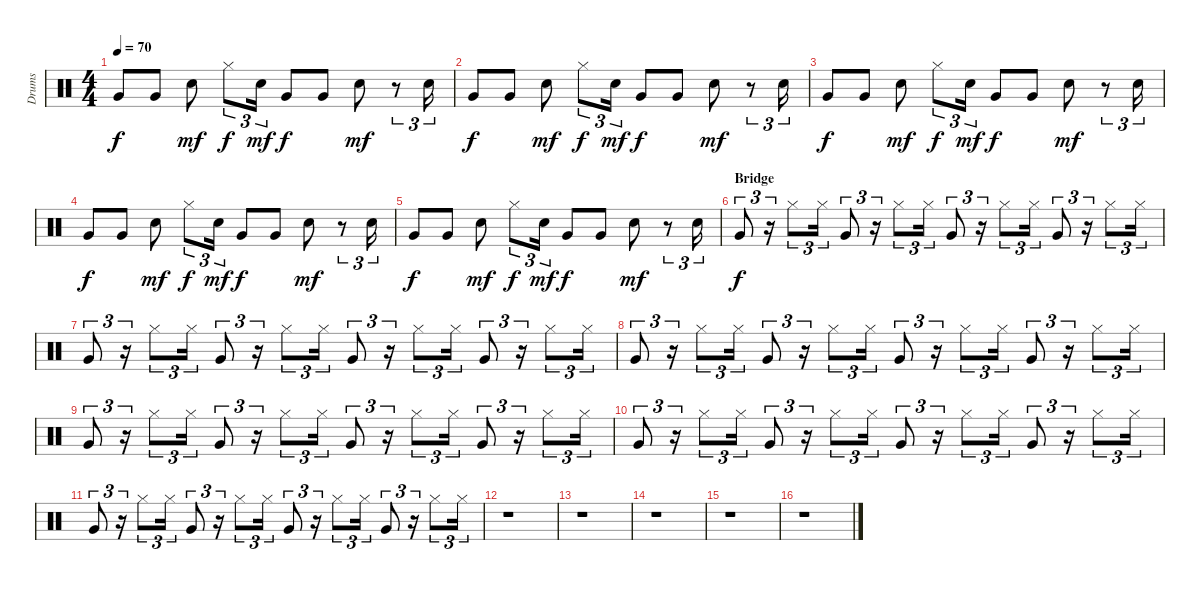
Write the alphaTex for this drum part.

\track ("Drums" "Drums") {instrument percussion}
\staff {score}
\articulation defaults
\ts (4 4)
\tempo 70
\clef neutral
\ks c "Very Low Tom (hit)".8{dy f} "Very Low Tom (hit)".8 "Electric Snare (hit)".8{dy mf} "Hi-Hat (closed)".8{tu (3 2) dy f} "Electric Snare (hit)".16{tu (3 2) dy mf} "Very Low Tom (hit)".8{dy f} "Very Low Tom (hit)".8 "Electric Snare (hit)".8{dy mf}
r.8{tu (3 2)} "Electric Snare (hit)".16{tu (3 2)} |
"Very Low Tom (hit)".8{dy f} "Very Low Tom (hit)".8 "Electric Snare (hit)".8{dy mf} "Hi-Hat (closed)".8{tu (3 2) dy f} "Electric Snare (hit)".16{tu (3 2) dy mf} "Very Low Tom (hit)".8{dy f} "Very Low Tom (hit)".8 "Electric Snare (hit)".8{dy mf} r.8{tu (3 2)} "Electric Snare (hit)".16{tu (3 2)} |
"Very Low Tom (hit)".8{dy f} "Very Low Tom (hit)".8 "Electric Snare (hit)".8{dy mf} "Hi-Hat (closed)".8{tu (3 2) dy f} "Electric Snare (hit)".16{tu (3 2) dy mf} "Very Low Tom (hit)".8{dy f} "Very Low Tom (hit)".8 "Electric Snare (hit)".8{dy mf} r.8{tu (3 2)} "Electric Snare (hit)".16{tu (3 2)} |
"Very Low Tom (hit)".8{dy f} "Very Low Tom (hit)".8 "Electric Snare (hit)".8{dy mf} "Hi-Hat (closed)".8{tu (3 2) dy f} "Electric Snare (hit)".16{tu (3 2) dy mf} "Very Low Tom (hit)".8{dy f} "Very Low Tom (hit)".8 "Electric Snare (hit)".8{dy mf} r.8{tu (3 2)} "Electric Snare (hit)".16{tu (3 2)} |
"Very Low Tom (hit)".8{dy f} "Very Low Tom (hit)".8 "Electric Snare (hit)".8{dy mf} "Hi-Hat (closed)".8{tu (3 2) dy f} "Electric Snare (hit)".16{tu (3 2) dy mf} "Very Low Tom (hit)".8{dy f} "Very Low Tom (hit)".8 "Electric Snare (hit)".8{dy mf} r.8{tu (3 2)} "Electric Snare (hit)".16{tu (3 2)} |
\section ("" "Bridge")
"Very Low Tom (hit)".8{tu (3 2) dy f volume 9} r.16{tu (3 2)} "Hi-Hat (closed)".8{tu (3 2)} "Hi-Hat (closed)".16{tu (3 2)} "Very Low Tom (hit)".8{tu (3 2)} r.16{tu (3 2)} "Hi-Hat (closed)".8{tu (3 2)} "Hi-Hat (closed)".16{tu (3 2)} "Very Low Tom (hit)".8{tu (3 2)} r.16{tu (3 2)} "Hi-Hat (closed)".8{tu (3 2)} "Hi-Hat (closed)".16{tu (3 2)} "Very Low Tom (hit)".8{tu (3 2)} r.16{tu (3 2)} "Hi-Hat (closed)".8{tu (3 2)} "Hi-Hat (closed)".16{tu (3 2)} |
"Very Low Tom (hit)".8{tu (3 2)} r.16{tu (3 2)} "Hi-Hat (closed)".8{tu (3 2)} "Hi-Hat (closed)".16{tu (3 2)} "Very Low Tom (hit)".8{tu (3 2)} r.16{tu (3 2)} "Hi-Hat (closed)".8{tu (3 2)} "Hi-Hat (closed)".16{tu (3 2)} "Very Low Tom (hit)".8{tu (3 2)} r.16{tu (3 2)} "Hi-Hat (closed)".8{tu (3 2)} "Hi-Hat (closed)".16{tu (3 2)} "Very Low Tom (hit)".8{tu (3 2)} r.16{tu (3 2)} "Hi-Hat (closed)".8{tu (3 2)} "Hi-Hat (closed)".16{tu (3 2)} |
"Very Low Tom (hit)".8{tu (3 2)} r.16{tu (3 2)} "Hi-Hat (closed)".8{tu (3 2)} "Hi-Hat (closed)".16{tu (3 2)} "Very Low Tom (hit)".8{tu (3 2)} r.16{tu (3 2)} "Hi-Hat (closed)".8{tu (3 2)} "Hi-Hat (closed)".16{tu (3 2)} "Very Low Tom (hit)".8{tu (3 2)} r.16{tu (3 2)} "Hi-Hat (closed)".8{tu (3 2)} "Hi-Hat (closed)".16{tu (3 2)} "Very Low Tom (hit)".8{tu (3 2)} r.16{tu (3 2)} "Hi-Hat (closed)".8{tu (3 2)} "Hi-Hat (closed)".16{tu (3 2)} |
"Very Low Tom (hit)".8{tu (3 2)} r.16{tu (3 2)} "Hi-Hat (closed)".8{tu (3 2)} "Hi-Hat (closed)".16{tu (3 2)} "Very Low Tom (hit)".8{tu (3 2)} r.16{tu (3 2)} "Hi-Hat (closed)".8{tu (3 2)} "Hi-Hat (closed)".16{tu (3 2)} "Very Low Tom (hit)".8{tu (3 2)} r.16{tu (3 2)} "Hi-Hat (closed)".8{tu (3 2)} "Hi-Hat (closed)".16{tu (3 2)} "Very Low Tom (hit)".8{tu (3 2)} r.16{tu (3 2)} "Hi-Hat (closed)".8{tu (3 2)} "Hi-Hat (closed)".16{tu (3 2)} |
"Very Low Tom (hit)".8{tu (3 2)} r.16{tu (3 2)} "Hi-Hat (closed)".8{tu (3 2)} "Hi-Hat (closed)".16{tu (3 2)} "Very Low Tom (hit)".8{tu (3 2)} r.16{tu (3 2)} "Hi-Hat (closed)".8{tu (3 2)} "Hi-Hat (closed)".16{tu (3 2)} "Very Low Tom (hit)".8{tu (3 2)} r.16{tu (3 2)} "Hi-Hat (closed)".8{tu (3 2)} "Hi-Hat (closed)".16{tu (3 2)} "Very Low Tom (hit)".8{tu (3 2)} r.16{tu (3 2)} "Hi-Hat (closed)".8{tu (3 2)} "Hi-Hat (closed)".16{tu (3 2)} |
"Very Low Tom (hit)".8{tu (3 2)} r.16{tu (3 2)} "Hi-Hat (closed)".8{tu (3 2)} "Hi-Hat (closed)".16{tu (3 2)} "Very Low Tom (hit)".8{tu (3 2)} r.16{tu (3 2)} "Hi-Hat (closed)".8{tu (3 2)} "Hi-Hat (closed)".16{tu (3 2)} "Very Low Tom (hit)".8{tu (3 2)} r.16{tu (3 2)} "Hi-Hat (closed)".8{tu (3 2)} "Hi-Hat (closed)".16{tu (3 2)} "Very Low Tom (hit)".8{tu (3 2)} r.16{tu (3 2)} "Hi-Hat (closed)".8{tu (3 2)} "Hi-Hat (closed)".16{tu (3 2)} |
r.1 |
r.1 |
r.1 |
r.1 |
r.1
